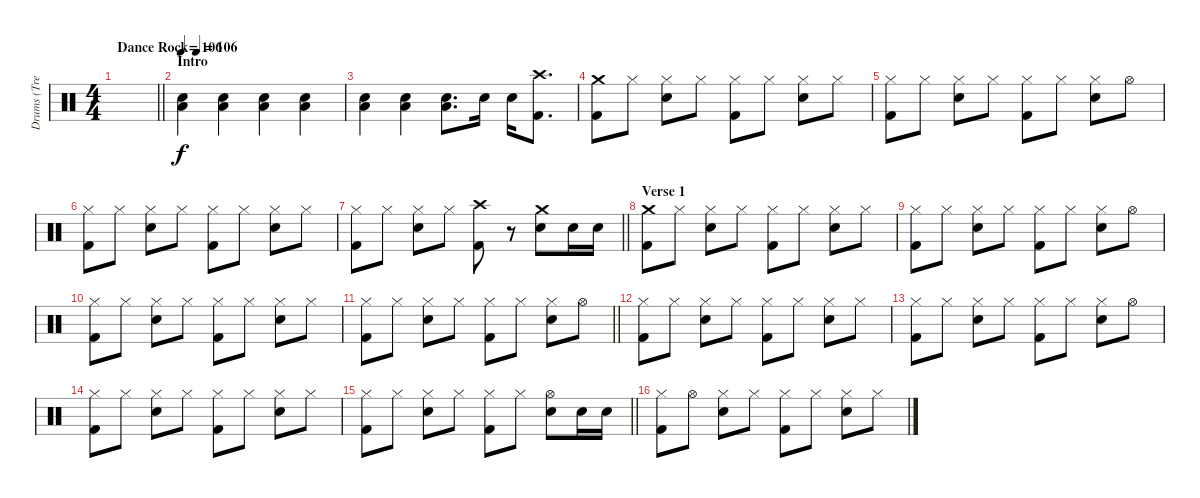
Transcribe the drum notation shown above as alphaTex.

\track ("Drums (Tre Cool)" "Drums (Tre") {instrument percussion}
\staff {score}
\articulation defaults
\ts (4 4)
\tempo (106 "Dance Rock")
\clef neutral
\barLineRight lightlight
\ks c
|
\section ("" "Intro")
\tempo 106
("Electric Snare (hit)" "Low Floor Tom (hit)").4 ("Electric Snare (hit)" "Low Floor Tom (hit)").4 ("Electric Snare (hit)" "Low Floor Tom (hit)").4 ("Electric Snare (hit)" "Low Floor Tom (hit)").4 |
("Electric Snare (hit)" "Low Floor Tom (hit)").4 ("Electric Snare (hit)" "Low Floor Tom (hit)").4 ("Electric Snare (hit)" "Low Floor Tom (hit)").8{d} "Electric Snare (hit)".16 "Electric Snare (hit)".16 ("Crash high (hit)" "Kick (hit) 2").8{d} |
("Crash medium (hit)" "Kick (hit) 2").8 "Hi-Hat (closed)".8 ("Hi-Hat (closed)" "Electric Snare (hit)").8 "Hi-Hat (closed)".8 ("Hi-Hat (closed)" "Kick (hit) 2").8 "Hi-Hat (closed)".8 ("Hi-Hat (closed)" "Electric Snare (hit)").8 "Hi-Hat (closed)".8 |
("Hi-Hat (closed)" "Kick (hit) 2").8 "Hi-Hat (closed)".8 ("Hi-Hat (closed)" "Electric Snare (hit)").8 "Hi-Hat (closed)".8 ("Hi-Hat (closed)" "Kick (hit) 2").8 "Hi-Hat (closed)".8 ("Hi-Hat (closed)" "Electric Snare (hit)").8 "Hi-Hat (open)".8 |
("Hi-Hat (closed)" "Kick (hit) 2").8 "Hi-Hat (closed)".8 ("Hi-Hat (closed)" "Electric Snare (hit)").8 "Hi-Hat (closed)".8 ("Hi-Hat (closed)" "Kick (hit) 2").8 "Hi-Hat (closed)".8 ("Hi-Hat (closed)" "Electric Snare (hit)").8 "Hi-Hat (closed)".8 |
\barLineRight lightlight
("Hi-Hat (closed)" "Kick (hit) 2").8 "Hi-Hat (closed)".8 ("Hi-Hat (closed)" "Electric Snare (hit)").8 "Hi-Hat (closed)".8 ("Crash high (hit)" "Kick (hit) 2").8 r.8 ("Crash medium (hit)" "Electric Snare (hit)").8 "Electric Snare (hit)".16 "Electric Snare (hit)".16 |
\section ("" "Verse 1")
("Crash medium (hit)" "Kick (hit) 2").8 "Hi-Hat (closed)".8 ("Hi-Hat (closed)" "Electric Snare (hit)").8 "Hi-Hat (closed)".8 ("Hi-Hat (closed)" "Kick (hit) 2").8 "Hi-Hat (closed)".8 ("Hi-Hat (closed)" "Electric Snare (hit)").8 "Hi-Hat (closed)".8 |
("Hi-Hat (closed)" "Kick (hit) 2").8 "Hi-Hat (closed)".8 ("Hi-Hat (closed)" "Electric Snare (hit)").8 "Hi-Hat (closed)".8 ("Hi-Hat (closed)" "Kick (hit) 2").8 "Hi-Hat (closed)".8 ("Hi-Hat (closed)" "Electric Snare (hit)").8 "Hi-Hat (open)".8 |
("Hi-Hat (closed)" "Kick (hit) 2").8 "Hi-Hat (closed)".8 ("Hi-Hat (closed)" "Electric Snare (hit)").8 "Hi-Hat (closed)".8 ("Hi-Hat (closed)" "Kick (hit) 2").8 "Hi-Hat (closed)".8 ("Hi-Hat (closed)" "Electric Snare (hit)").8 "Hi-Hat (closed)".8 |
\barLineRight lightlight
("Hi-Hat (closed)" "Kick (hit) 2").8 "Hi-Hat (closed)".8 ("Hi-Hat (closed)" "Electric Snare (hit)").8 "Hi-Hat (closed)".8 ("Hi-Hat (closed)" "Kick (hit) 2").8 "Hi-Hat (closed)".8 ("Hi-Hat (closed)" "Electric Snare (hit)").8 "Hi-Hat (open)".8 |
("Hi-Hat (closed)" "Kick (hit) 2").8 "Hi-Hat (closed)".8 ("Hi-Hat (closed)" "Electric Snare (hit)").8 "Hi-Hat (closed)".8 ("Hi-Hat (closed)" "Kick (hit) 2").8 "Hi-Hat (closed)".8 ("Hi-Hat (closed)" "Electric Snare (hit)").8 "Hi-Hat (closed)".8 |
("Hi-Hat (closed)" "Kick (hit) 2").8 "Hi-Hat (closed)".8 ("Hi-Hat (closed)" "Electric Snare (hit)").8 "Hi-Hat (closed)".8 ("Hi-Hat (closed)" "Kick (hit) 2").8 "Hi-Hat (closed)".8 ("Hi-Hat (closed)" "Electric Snare (hit)").8 "Hi-Hat (open)".8 |
("Hi-Hat (closed)" "Kick (hit) 2").8 "Hi-Hat (closed)".8 ("Hi-Hat (closed)" "Electric Snare (hit)").8 "Hi-Hat (closed)".8 ("Hi-Hat (closed)" "Kick (hit) 2").8 "Hi-Hat (closed)".8 ("Hi-Hat (closed)" "Electric Snare (hit)").8 "Hi-Hat (closed)".8 |
\barLineRight lightlight
("Hi-Hat (closed)" "Kick (hit) 2").8 "Hi-Hat (closed)".8 ("Hi-Hat (closed)" "Electric Snare (hit)").8 "Hi-Hat (closed)".8 ("Hi-Hat (closed)" "Kick (hit) 2").8 "Hi-Hat (closed)".8 ("Hi-Hat (open)" "Electric Snare (hit)").8 "Electric Snare (hit)".16 "Electric Snare (hit)".16 |
("Hi-Hat (closed)" "Kick (hit) 2").8 "Hi-Hat (open)".8 ("Hi-Hat (closed)" "Electric Snare (hit)").8 "Hi-Hat (closed)".8 ("Hi-Hat (closed)" "Kick (hit) 2").8 "Hi-Hat (closed)".8 ("Hi-Hat (closed)" "Electric Snare (hit)").8 "Hi-Hat (closed)".8
